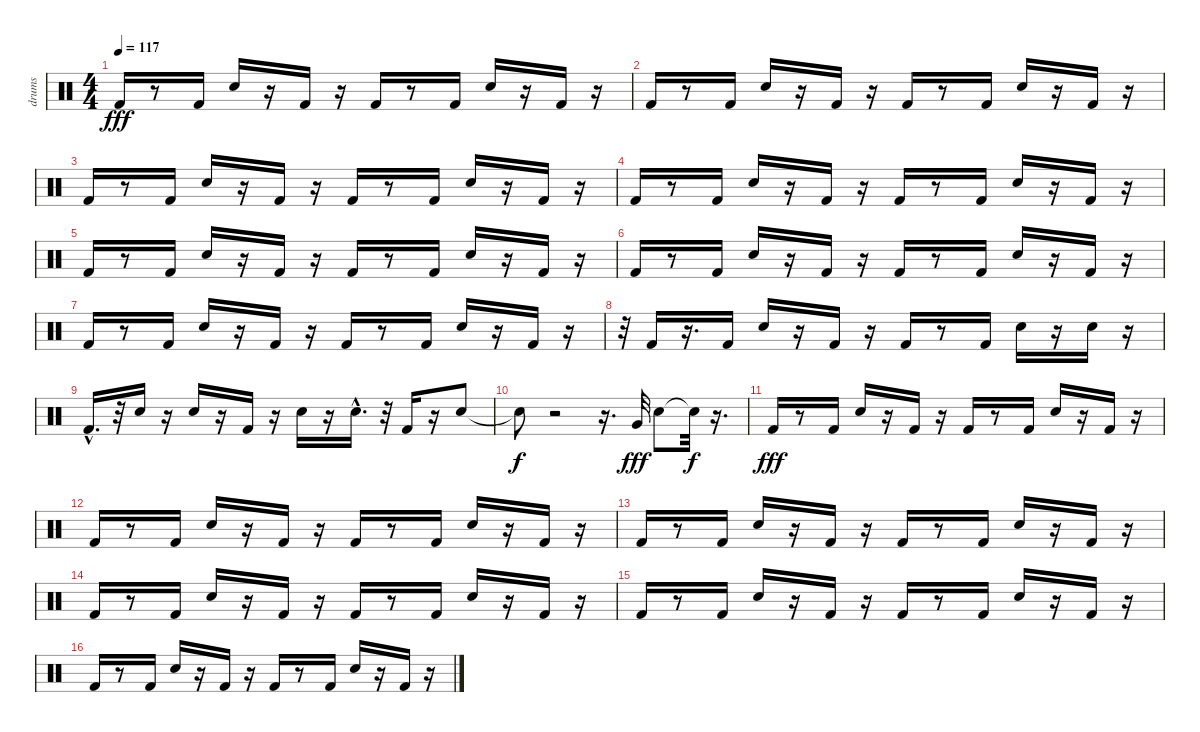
\track ("drums" "drums") {instrument percussion}
\staff {score}
\articulation defaults
\ts (4 4)
\tempo 117
\clef neutral
\ks c "Kick (hit) 2".16{dy fff}
r.8 "Kick (hit) 2".16 "Snare (hit) 2".16 r.16 "Kick (hit) 2".16 r.16 "Kick (hit) 2".16 r.8 "Kick (hit) 2".16 "Snare (hit) 2".16 r.16 "Kick (hit) 2".16 r.16 |
"Kick (hit) 2".16 r.8 "Kick (hit) 2".16 "Snare (hit) 2".16 r.16 "Kick (hit) 2".16 r.16 "Kick (hit) 2".16 r.8 "Kick (hit) 2".16 "Snare (hit) 2".16 r.16 "Kick (hit) 2".16 r.16 |
"Kick (hit) 2".16 r.8 "Kick (hit) 2".16 "Snare (hit) 2".16 r.16 "Kick (hit) 2".16 r.16 "Kick (hit) 2".16 r.8 "Kick (hit) 2".16 "Snare (hit) 2".16 r.16 "Kick (hit) 2".16 r.16 |
"Kick (hit) 2".16 r.8 "Kick (hit) 2".16 "Snare (hit) 2".16 r.16 "Kick (hit) 2".16 r.16 "Kick (hit) 2".16 r.8 "Kick (hit) 2".16 "Snare (hit) 2".16 r.16 "Kick (hit) 2".16 r.16 |
"Kick (hit) 2".16 r.8 "Kick (hit) 2".16 "Snare (hit) 2".16 r.16 "Kick (hit) 2".16 r.16 "Kick (hit) 2".16 r.8 "Kick (hit) 2".16 "Snare (hit) 2".16 r.16 "Kick (hit) 2".16 r.16 |
"Kick (hit) 2".16 r.8 "Kick (hit) 2".16 "Snare (hit) 2".16 r.16 "Kick (hit) 2".16 r.16 "Kick (hit) 2".16 r.8 "Kick (hit) 2".16 "Snare (hit) 2".16 r.16 "Kick (hit) 2".16 r.16 |
"Kick (hit) 2".16 r.8 "Kick (hit) 2".16 "Snare (hit) 2".16 r.16 "Kick (hit) 2".16 r.16 "Kick (hit) 2".16 r.8 "Kick (hit) 2".16 "Snare (hit) 2".16 r.16 "Kick (hit) 2".16 r.16 |
r.32 "Kick (hit) 2".16 r.16{d} "Kick (hit) 2".16 "Snare (hit) 2".16 r.16 "Kick (hit) 2".16 r.16 "Kick (hit) 2".16 r.8 "Kick (hit) 2".16 "Snare (hit) 2".16 r.16 "Snare (hit) 2".16 r.16 |
"Kick (hit) 2"{hac}.16{d} r.32 "Snare (hit) 2".16 r.16 "Snare (hit) 2".16 r.16 "Kick (hit) 2".16 r.16 "Snare (hit) 2".16 r.16 "Snare (hit) 2"{hac}.16{d} r.32 "Kick (hit) 2".16 r.16 "Snare (hit) 2".8 |
"Snare (hit)"{t}.8{dy f} r.2 r.16{d} "Very Low Tom (hit)".32{dy fff} "Snare (hit) 2".8 "Snare (hit)"{t}.32{dy f} r.16{d} |
"Kick (hit) 2".16{dy fff} r.8 "Kick (hit) 2".16 "Snare (hit) 2".16 r.16 "Kick (hit) 2".16 r.16 "Kick (hit) 2".16 r.8 "Kick (hit) 2".16 "Snare (hit) 2".16 r.16 "Kick (hit) 2".16 r.16 |
"Kick (hit) 2".16 r.8 "Kick (hit) 2".16 "Snare (hit) 2".16 r.16 "Kick (hit) 2".16 r.16 "Kick (hit) 2".16 r.8 "Kick (hit) 2".16 "Snare (hit) 2".16 r.16 "Kick (hit) 2".16 r.16 |
"Kick (hit) 2".16 r.8 "Kick (hit) 2".16 "Snare (hit) 2".16 r.16 "Kick (hit) 2".16 r.16 "Kick (hit) 2".16 r.8 "Kick (hit) 2".16 "Snare (hit) 2".16 r.16 "Kick (hit) 2".16 r.16 |
"Kick (hit) 2".16 r.8 "Kick (hit) 2".16 "Snare (hit) 2".16 r.16 "Kick (hit) 2".16 r.16 "Kick (hit) 2".16 r.8 "Kick (hit) 2".16 "Snare (hit) 2".16 r.16 "Kick (hit) 2".16 r.16 |
"Kick (hit) 2".16 r.8 "Kick (hit) 2".16 "Snare (hit) 2".16 r.16 "Kick (hit) 2".16 r.16 "Kick (hit) 2".16 r.8 "Kick (hit) 2".16 "Snare (hit) 2".16 r.16 "Kick (hit) 2".16 r.16 |
"Kick (hit) 2".16 r.8 "Kick (hit) 2".16 "Snare (hit) 2".16 r.16 "Kick (hit) 2".16 r.16 "Kick (hit) 2".16 r.8 "Kick (hit) 2".16 "Snare (hit) 2".16 r.16 "Kick (hit) 2".16 r.16
